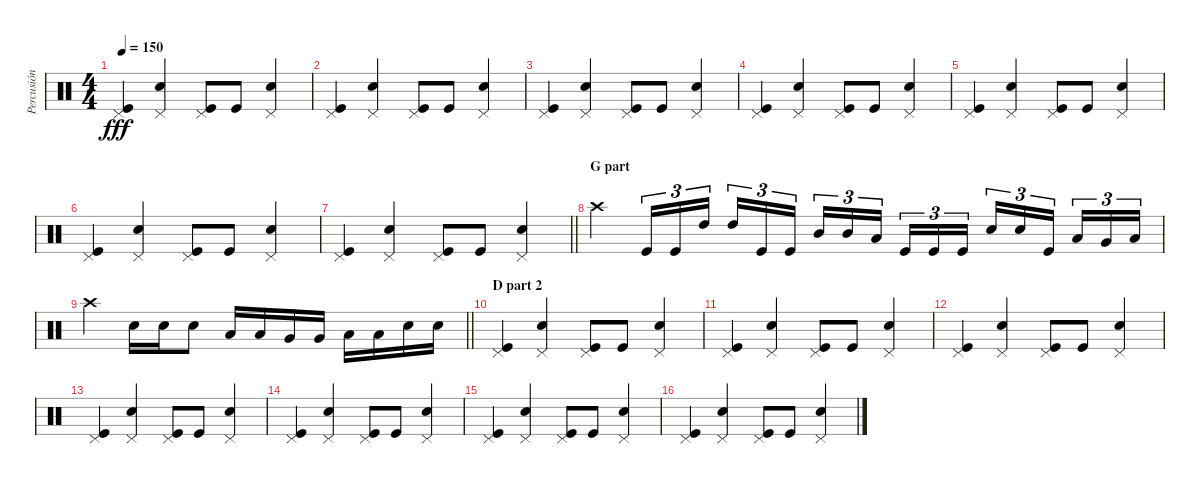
\track ("Percusión" "Percusión") {instrument percussion}
\staff {score}
\articulation defaults
\ts (4 4)
\tempo 150
\clef neutral
\ks c
("Pedal Hi-Hat (hit)" "Kick (hit)").4{dy fff} ("Pedal Hi-Hat (hit)" "Electric Snare (hit)").4 ("Pedal Hi-Hat (hit)" "Kick (hit)").8 "Kick (hit)".8 ("Pedal Hi-Hat (hit)" "Electric Snare (hit)").4 |
("Pedal Hi-Hat (hit)" "Kick (hit)").4 ("Pedal Hi-Hat (hit)" "Electric Snare (hit)").4 ("Pedal Hi-Hat (hit)" "Kick (hit)").8 "Kick (hit)".8 ("Pedal Hi-Hat (hit)" "Electric Snare (hit)").4 |
("Pedal Hi-Hat (hit)" "Kick (hit)").4 ("Pedal Hi-Hat (hit)" "Electric Snare (hit)").4 ("Pedal Hi-Hat (hit)" "Kick (hit)").8 "Kick (hit)".8 ("Pedal Hi-Hat (hit)" "Electric Snare (hit)").4 |
("Pedal Hi-Hat (hit)" "Kick (hit)").4 ("Pedal Hi-Hat (hit)" "Electric Snare (hit)").4 ("Pedal Hi-Hat (hit)" "Kick (hit)").8 "Kick (hit)".8 ("Pedal Hi-Hat (hit)" "Electric Snare (hit)").4 |
("Pedal Hi-Hat (hit)" "Kick (hit)").4 ("Pedal Hi-Hat (hit)" "Electric Snare (hit)").4 ("Pedal Hi-Hat (hit)" "Kick (hit)").8 "Kick (hit)".8 ("Pedal Hi-Hat (hit)" "Electric Snare (hit)").4 |
("Pedal Hi-Hat (hit)" "Kick (hit)").4 ("Pedal Hi-Hat (hit)" "Electric Snare (hit)").4 ("Pedal Hi-Hat (hit)" "Kick (hit)").8 "Kick (hit)".8 ("Pedal Hi-Hat (hit)" "Electric Snare (hit)").4 |
\barLineRight lightlight
("Pedal Hi-Hat (hit)" "Kick (hit)").4 ("Pedal Hi-Hat (hit)" "Electric Snare (hit)").4 ("Pedal Hi-Hat (hit)" "Kick (hit)").8 "Kick (hit)".8 ("Pedal Hi-Hat (hit)" "Electric Snare (hit)").4 |
\section ("" "G part")
"Crash high (hit)".4 "Kick (hit)".16{tu (3 2)} "Kick (hit)".16{tu (3 2)} "High Tom (hit)".16{tu (3 2) beam splitsecondary} "High Tom (hit)".16{tu (3 2)} "Kick (hit)".16{tu (3 2)} "Kick (hit)".16{tu (3 2)} "Mid Tom (hit)".16{tu (3 2)} "Mid Tom (hit)".16{tu (3 2)} "Low Tom (hit)".16{tu (3 2) beam splitsecondary} "Kick (hit)".16{tu (3 2)} "Kick (hit)".16{tu (3 2)} "Kick (hit)".16{tu (3 2)} "Electric Snare (hit)".16{tu (3 2)} "Electric Snare (hit)".16{tu (3 2)} "Kick (hit)".16{tu (3 2) beam splitsecondary} "Low Floor Tom (hit)".16{tu (3 2)} "Very Low Tom (hit)".16{tu (3 2)} "Low Floor Tom (hit)".16{tu (3 2)} |
\barLineRight lightlight "Crash high (hit)".4 "Electric Snare (hit)".16 "Electric Snare (hit)".16 "Electric Snare (hit)".8 "Low Tom (hit)".16 "Low Tom (hit)".16 "Very Low Tom (hit)".16 "Very Low Tom (hit)".16 "Low Floor Tom (hit)".16 "Low Floor Tom (hit)".16 "Electric Snare (hit)".16 "Electric Snare (hit)".16
|
\section ("" "D part 2")
("Pedal Hi-Hat (hit)" "Kick (hit)").4 ("Pedal Hi-Hat (hit)" "Electric Snare (hit)").4 ("Pedal Hi-Hat (hit)" "Kick (hit)").8 "Kick (hit)".8 ("Pedal Hi-Hat (hit)" "Electric Snare (hit)").4 |
("Pedal Hi-Hat (hit)" "Kick (hit)").4 ("Pedal Hi-Hat (hit)" "Electric Snare (hit)").4 ("Pedal Hi-Hat (hit)" "Kick (hit)").8 "Kick (hit)".8 ("Pedal Hi-Hat (hit)" "Electric Snare (hit)").4 |
("Pedal Hi-Hat (hit)" "Kick (hit)").4 ("Pedal Hi-Hat (hit)" "Electric Snare (hit)").4 ("Pedal Hi-Hat (hit)" "Kick (hit)").8 "Kick (hit)".8 ("Pedal Hi-Hat (hit)" "Electric Snare (hit)").4 |
("Pedal Hi-Hat (hit)" "Kick (hit)").4 ("Pedal Hi-Hat (hit)" "Electric Snare (hit)").4 ("Pedal Hi-Hat (hit)" "Kick (hit)").8 "Kick (hit)".8 ("Pedal Hi-Hat (hit)" "Electric Snare (hit)").4 |
("Pedal Hi-Hat (hit)" "Kick (hit)").4 ("Pedal Hi-Hat (hit)" "Electric Snare (hit)").4 ("Pedal Hi-Hat (hit)" "Kick (hit)").8 "Kick (hit)".8 ("Pedal Hi-Hat (hit)" "Electric Snare (hit)").4 |
("Pedal Hi-Hat (hit)" "Kick (hit)").4 ("Pedal Hi-Hat (hit)" "Electric Snare (hit)").4 ("Pedal Hi-Hat (hit)" "Kick (hit)").8 "Kick (hit)".8 ("Pedal Hi-Hat (hit)" "Electric Snare (hit)").4 |
("Pedal Hi-Hat (hit)" "Kick (hit)").4 ("Pedal Hi-Hat (hit)" "Electric Snare (hit)").4 ("Pedal Hi-Hat (hit)" "Kick (hit)").8 "Kick (hit)".8 ("Pedal Hi-Hat (hit)" "Electric Snare (hit)").4
